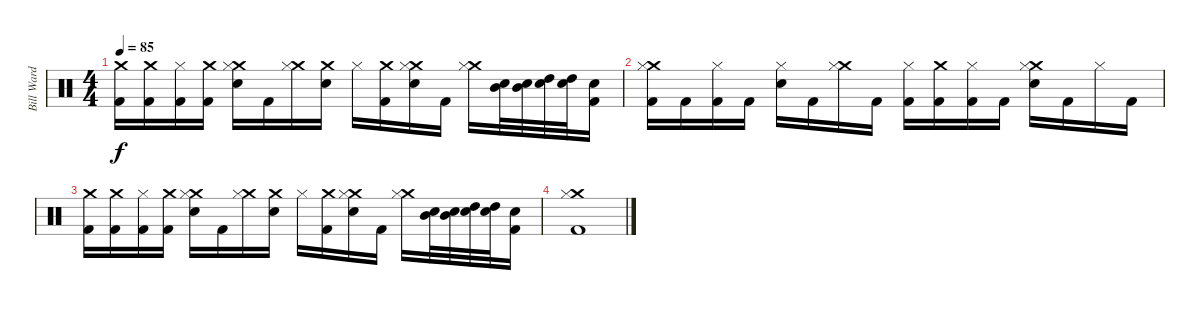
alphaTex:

\track ("Bill Ward (Drums)" "Bill Ward ") {instrument percussion}
\staff {score}
\articulation defaults
\ts (4 4)
\tempo 85
\clef neutral
\ks c
("Crash medium (hit)" "Kick (hit) 2").16{dy f} ("Crash medium (hit)" "Kick (hit) 2").16 ("Hi-Hat (closed)" "Kick (hit) 2").16 ("Crash medium (hit)" "Kick (hit) 2").16 ("Crash medium (hit)" "Hi-Hat (closed)" "Snare (hit) 2").16 "Kick (hit) 2".16 ("Crash medium (hit)" "Hi-Hat (closed)").16 ("Crash medium (hit)" "Snare (hit) 2").16 "Hi-Hat (closed)".16 ("Crash medium (hit)" "Kick (hit) 2").16 ("Crash medium (hit)" "Hi-Hat (closed)" "Snare (hit) 2").16 "Kick (hit) 2".16 ("Crash medium (hit)" "Hi-Hat (closed)").16 ("Mid Tom (hit)" "Snare (hit) 2").32 ("Mid Tom (hit)" "Snare (hit) 2").32 ("High Tom (hit)" "Snare (hit) 2").32 ("High Tom (hit)" "Snare (hit) 2").32 ("Snare (hit) 2" "Kick (hit) 2").16 |
("Crash medium (hit)" "Hi-Hat (closed)" "Kick (hit) 2").16 "Kick (hit) 2".16 ("Hi-Hat (closed)" "Kick (hit) 2").16 "Kick (hit) 2".16 ("Hi-Hat (closed)" "Snare (hit) 2").16 "Kick (hit) 2".16 ("Crash medium (hit)" "Hi-Hat (closed)").16 "Kick (hit) 2".16 ("Hi-Hat (closed)" "Kick (hit) 2").16 ("Crash medium (hit)" "Kick (hit) 2").16 ("Hi-Hat (closed)" "Kick (hit) 2").16 "Kick (hit) 2".16 ("Crash medium (hit)" "Hi-Hat (closed)" "Snare (hit) 2").16 "Kick (hit) 2".16 "Hi-Hat (closed)".16 "Kick (hit) 2".16 |
("Crash medium (hit)" "Kick (hit) 2").16 ("Crash medium (hit)" "Kick (hit) 2").16 ("Hi-Hat (closed)" "Kick (hit) 2").16 ("Crash medium (hit)" "Kick (hit) 2").16 ("Crash medium (hit)" "Hi-Hat (closed)" "Snare (hit) 2").16 "Kick (hit) 2".16 ("Crash medium (hit)" "Hi-Hat (closed)").16 ("Crash medium (hit)" "Snare (hit) 2").16 "Hi-Hat (closed)".16 ("Crash medium (hit)" "Kick (hit) 2").16 ("Crash medium (hit)" "Hi-Hat (closed)" "Snare (hit) 2").16 "Kick (hit) 2".16 ("Crash medium (hit)" "Hi-Hat (closed)").16 ("Mid Tom (hit)" "Snare (hit) 2").32 ("Mid Tom (hit)" "Snare (hit) 2").32 ("High Tom (hit)" "Snare (hit) 2").32 ("High Tom (hit)" "Snare (hit) 2").32 ("Snare (hit) 2" "Kick (hit) 2").16 |
("Crash medium (hit)" "Hi-Hat (closed)" "Kick (hit) 2").1
